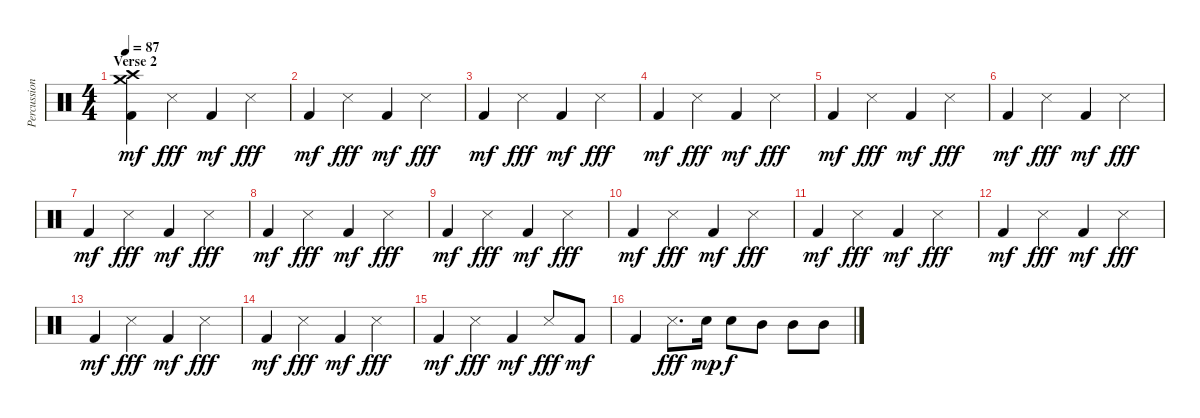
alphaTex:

\track ("Percussion" "Percussion") {instrument percussion}
\staff {score}
\articulation defaults
\ts (4 4)
\section ("" "Verse 2")
\tempo 87
\clef neutral
\ks c
("Crash high (hit)" "Crash medium (hit)" "Kick (hit) 2").4{dy mf} "Snare (side stick) 3".4{dy fff} "Kick (hit) 2".4{dy mf} "Snare (side stick) 3".4{dy fff} |
"Kick (hit) 2".4{dy mf} "Snare (side stick) 3".4{dy fff} "Kick (hit) 2".4{dy mf} "Snare (side stick) 3".4{dy fff} |
"Kick (hit) 2".4{dy mf} "Snare (side stick) 3".4{dy fff} "Kick (hit) 2".4{dy mf} "Snare (side stick) 3".4{dy fff} |
"Kick (hit) 2".4{dy mf} "Snare (side stick) 3".4{dy fff} "Kick (hit) 2".4{dy mf} "Snare (side stick) 3".4{dy fff} |
"Kick (hit) 2".4{dy mf} "Snare (side stick) 3".4{dy fff} "Kick (hit) 2".4{dy mf} "Snare (side stick) 3".4{dy fff} |
"Kick (hit) 2".4{dy mf} "Snare (side stick) 3".4{dy fff} "Kick (hit) 2".4{dy mf} "Snare (side stick) 3".4{dy fff} |
"Kick (hit) 2".4{dy mf} "Snare (side stick) 3".4{dy fff} "Kick (hit) 2".4{dy mf} "Snare (side stick) 3".4{dy fff} |
"Kick (hit) 2".4{dy mf} "Snare (side stick) 3".4{dy fff} "Kick (hit) 2".4{dy mf} "Snare (side stick) 3".4{dy fff} |
"Kick (hit) 2".4{dy mf} "Snare (side stick) 3".4{dy fff} "Kick (hit) 2".4{dy mf} "Snare (side stick) 3".4{dy fff} |
"Kick (hit) 2".4{dy mf} "Snare (side stick) 3".4{dy fff} "Kick (hit) 2".4{dy mf} "Snare (side stick) 3".4{dy fff} |
"Kick (hit) 2".4{dy mf} "Snare (side stick) 3".4{dy fff} "Kick (hit) 2".4{dy mf} "Snare (side stick) 3".4{dy fff} |
"Kick (hit) 2".4{dy mf} "Snare (side stick) 3".4{dy fff} "Kick (hit) 2".4{dy mf} "Snare (side stick) 3".4{dy fff} |
"Kick (hit) 2".4{dy mf} "Snare (side stick) 3".4{dy fff} "Kick (hit) 2".4{dy mf} "Snare (side stick) 3".4{dy fff} |
"Kick (hit) 2".4{dy mf} "Snare (side stick) 3".4{dy fff} "Kick (hit) 2".4{dy mf} "Snare (side stick) 3".4{dy fff} |
"Kick (hit) 2".4{dy mf} "Snare (side stick) 3".4{dy fff} "Kick (hit) 2".4{dy mf} "Snare (side stick) 3".8{dy fff} "Kick (hit) 2".8{dy mf} |
"Kick (hit) 2".4 "Snare (side stick) 3".8{d dy fff} "Snare (hit) 2".16{dy mp} "Snare (hit) 2".8{dy f} "Mid Tom (hit)".8 "Mid Tom (hit)".8 "Mid Tom (hit)".8
